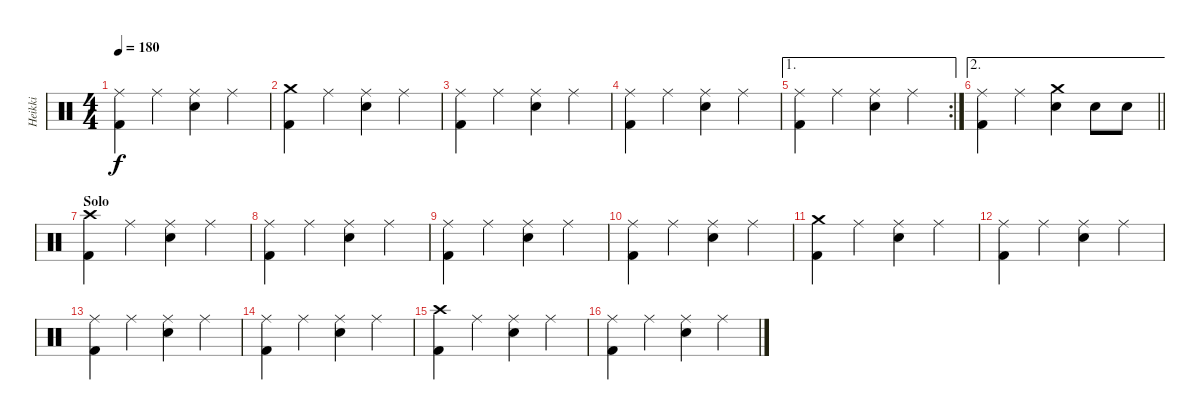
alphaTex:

\track ("Heikki" "Heikki") {instrument percussion}
\staff {score}
\articulation defaults
\ts (4 4)
\tempo 180
\clef neutral
\ks c
("Ride (middle)" "Kick (hit) 2").4{dy f} "Ride (middle)".4 ("Ride (middle)" "Electric Snare (hit)").4 "Ride (middle)".4 |
("Crash medium (hit)" "Kick (hit) 2").4 "Ride (middle)".4 ("Ride (middle)" "Electric Snare (hit)").4 "Ride (middle)".4 |
("Ride (middle)" "Kick (hit) 2").4 "Ride (middle)".4 ("Ride (middle)" "Electric Snare (hit)").4 "Ride (middle)".4 |
("Ride (middle)" "Kick (hit) 2").4 "Ride (middle)".4 ("Ride (middle)" "Electric Snare (hit)").4 "Ride (middle)".4 |
\ae 1
\rc 2
("Ride (middle)" "Kick (hit) 2").4 "Ride (middle)".4 ("Ride (middle)" "Electric Snare (hit)").4 "Ride (middle)".4 |
\ae 2
\barLineRight lightlight
("Ride (middle)" "Kick (hit) 2").4 "Ride (middle)".4 ("Crash medium (hit)" "Electric Snare (hit)").4 "Electric Snare (hit)".8 "Electric Snare (hit)".8 |
\section ("" "Solo")
("Crash high (hit)" "Kick (hit) 2").4 "Ride (middle)".4 ("Ride (middle)" "Electric Snare (hit)").4 "Ride (middle)".4 |
("Ride (middle)" "Kick (hit) 2").4 "Ride (middle)".4 ("Ride (middle)" "Electric Snare (hit)").4 "Ride (middle)".4 |
("Ride (middle)" "Kick (hit) 2").4 "Ride (middle)".4 ("Ride (middle)" "Electric Snare (hit)").4 "Ride (middle)".4 |
("Ride (middle)" "Kick (hit) 2").4 "Ride (middle)".4 ("Ride (middle)" "Electric Snare (hit)").4 "Ride (middle)".4 |
("Crash medium (hit)" "Kick (hit) 2").4 "Ride (middle)".4 ("Ride (middle)" "Electric Snare (hit)").4 "Ride (middle)".4 |
("Ride (middle)" "Kick (hit) 2").4 "Ride (middle)".4 ("Ride (middle)" "Electric Snare (hit)").4 "Ride (middle)".4 |
("Ride (middle)" "Kick (hit) 2").4 "Ride (middle)".4 ("Ride (middle)" "Electric Snare (hit)").4 "Ride (middle)".4 |
("Ride (middle)" "Kick (hit) 2").4 "Ride (middle)".4 ("Ride (middle)" "Electric Snare (hit)").4 "Ride (middle)".4 |
("Crash high (hit)" "Kick (hit) 2").4 "Ride (middle)".4 ("Ride (middle)" "Electric Snare (hit)").4 "Ride (middle)".4 |
("Ride (middle)" "Kick (hit) 2").4 "Ride (middle)".4 ("Ride (middle)" "Electric Snare (hit)").4 "Ride (middle)".4
